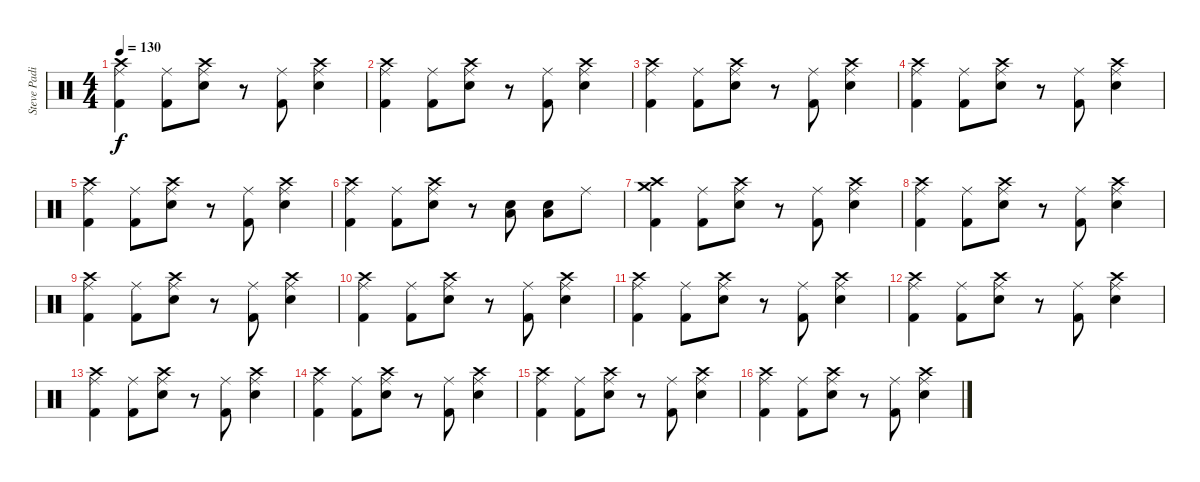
\track ("Steve Padin" "Steve Padi") {instrument percussion}
\staff {score}
\articulation defaults
\ts (4 4)
\tempo 130
\clef neutral
\ks c
("Crash high (hit)" "Ride (middle)" "Kick (hit) 2").4{dy f} ("Ride (middle)" "Kick (hit) 2").8 ("Crash high (hit)" "Ride (middle)" "Electric Snare (hit)").8 r.8 ("Ride (middle)" "Kick (hit) 2").8 ("Crash high (hit)" "Ride (middle)" "Electric Snare (hit)").4 |
("Crash high (hit)" "Ride (middle)" "Kick (hit) 2").4 ("Ride (middle)" "Kick (hit) 2").8 ("Crash high (hit)" "Ride (middle)" "Electric Snare (hit)").8 r.8 ("Ride (middle)" "Kick (hit) 2").8 ("Crash high (hit)" "Ride (middle)" "Electric Snare (hit)").4 |
("Crash high (hit)" "Ride (middle)" "Kick (hit) 2").4 ("Ride (middle)" "Kick (hit) 2").8 ("Crash high (hit)" "Ride (middle)" "Electric Snare (hit)").8 r.8 ("Ride (middle)" "Kick (hit) 2").8 ("Crash high (hit)" "Ride (middle)" "Electric Snare (hit)").4 |
("Crash high (hit)" "Ride (middle)" "Kick (hit) 2").4 ("Ride (middle)" "Kick (hit) 2").8 ("Crash high (hit)" "Ride (middle)" "Electric Snare (hit)").8 r.8 ("Ride (middle)" "Kick (hit) 2").8 ("Crash high (hit)" "Ride (middle)" "Electric Snare (hit)").4 |
("Crash high (hit)" "Ride (middle)" "Kick (hit) 2").4 ("Ride (middle)" "Kick (hit) 2").8 ("Crash high (hit)" "Ride (middle)" "Electric Snare (hit)").8 r.8 ("Ride (middle)" "Kick (hit) 2").8 ("Crash high (hit)" "Ride (middle)" "Electric Snare (hit)").4 |
("Crash high (hit)" "Ride (middle)" "Kick (hit) 2").4 ("Ride (middle)" "Kick (hit) 2").8 ("Crash high (hit)" "Ride (middle)" "Electric Snare (hit)").8 r.8 ("Electric Snare (hit)" "Low Floor Tom (hit)").8 ("Electric Snare (hit)" "Low Floor Tom (hit)").8 "Ride (middle)".8 |
("Crash high (hit)" "Crash medium (hit)" "Kick (hit) 2").4 ("Ride (middle)" "Kick (hit) 2").8 ("Crash high (hit)" "Ride (middle)" "Electric Snare (hit)").8 r.8 ("Ride (middle)" "Kick (hit) 2").8 ("Crash high (hit)" "Ride (middle)" "Electric Snare (hit)").4 |
("Crash high (hit)" "Ride (middle)" "Kick (hit) 2").4 ("Ride (middle)" "Kick (hit) 2").8 ("Crash high (hit)" "Ride (middle)" "Electric Snare (hit)").8 r.8 ("Ride (middle)" "Kick (hit) 2").8 ("Crash high (hit)" "Ride (middle)" "Electric Snare (hit)").4 |
("Crash high (hit)" "Ride (middle)" "Kick (hit) 2").4 ("Ride (middle)" "Kick (hit) 2").8 ("Crash high (hit)" "Ride (middle)" "Electric Snare (hit)").8 r.8 ("Ride (middle)" "Kick (hit) 2").8 ("Crash high (hit)" "Ride (middle)" "Electric Snare (hit)").4 |
("Crash high (hit)" "Ride (middle)" "Kick (hit) 2").4 ("Ride (middle)" "Kick (hit) 2").8 ("Crash high (hit)" "Ride (middle)" "Electric Snare (hit)").8 r.8 ("Ride (middle)" "Kick (hit) 2").8 ("Crash high (hit)" "Ride (middle)" "Electric Snare (hit)").4 |
("Crash high (hit)" "Ride (middle)" "Kick (hit) 2").4 ("Ride (middle)" "Kick (hit) 2").8 ("Crash high (hit)" "Ride (middle)" "Electric Snare (hit)").8 r.8 ("Ride (middle)" "Kick (hit) 2").8 ("Crash high (hit)" "Ride (middle)" "Electric Snare (hit)").4 |
("Crash high (hit)" "Ride (middle)" "Kick (hit) 2").4 ("Ride (middle)" "Kick (hit) 2").8 ("Crash high (hit)" "Ride (middle)" "Electric Snare (hit)").8 r.8 ("Ride (middle)" "Kick (hit) 2").8 ("Crash high (hit)" "Ride (middle)" "Electric Snare (hit)").4 |
("Crash high (hit)" "Ride (middle)" "Kick (hit) 2").4 ("Ride (middle)" "Kick (hit) 2").8 ("Crash high (hit)" "Ride (middle)" "Electric Snare (hit)").8 r.8 ("Ride (middle)" "Kick (hit) 2").8 ("Crash high (hit)" "Ride (middle)" "Electric Snare (hit)").4 |
("Crash high (hit)" "Ride (middle)" "Kick (hit) 2").4 ("Ride (middle)" "Kick (hit) 2").8 ("Crash high (hit)" "Ride (middle)" "Electric Snare (hit)").8 r.8 ("Ride (middle)" "Kick (hit) 2").8 ("Crash high (hit)" "Ride (middle)" "Electric Snare (hit)").4 |
("Crash high (hit)" "Ride (middle)" "Kick (hit) 2").4 ("Ride (middle)" "Kick (hit) 2").8 ("Crash high (hit)" "Ride (middle)" "Electric Snare (hit)").8 r.8 ("Ride (middle)" "Kick (hit) 2").8 ("Crash high (hit)" "Ride (middle)" "Electric Snare (hit)").4 |
("Crash high (hit)" "Ride (middle)" "Kick (hit) 2").4 ("Ride (middle)" "Kick (hit) 2").8 ("Crash high (hit)" "Ride (middle)" "Electric Snare (hit)").8 r.8 ("Ride (middle)" "Kick (hit) 2").8 ("Crash high (hit)" "Ride (middle)" "Electric Snare (hit)").4
